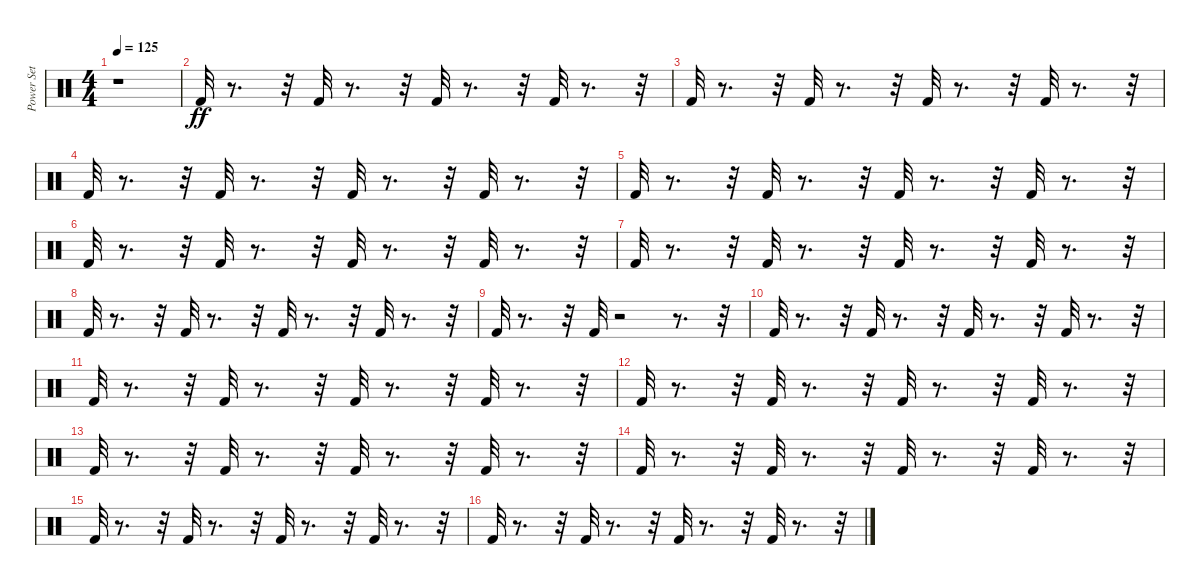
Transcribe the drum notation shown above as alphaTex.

\track ("Power Set" "Power Set") {instrument percussion}
\staff {score}
\articulation defaults
\ts (4 4)
\tempo 125
\clef neutral
\ks c
r.1{dy ff} |
"Kick (hit) 2".32 r.8{d} r.32 "Kick (hit) 2".32 r.8{d} r.32 "Kick (hit) 2".32 r.8{d} r.32 "Kick (hit) 2".32 r.8{d} r.32 |
"Kick (hit) 2".32 r.8{d} r.32 "Kick (hit) 2".32 r.8{d} r.32 "Kick (hit) 2".32 r.8{d} r.32 "Kick (hit) 2".32 r.8{d} r.32 |
"Kick (hit) 2".32 r.8{d} r.32 "Kick (hit) 2".32 r.8{d} r.32 "Kick (hit) 2".32 r.8{d} r.32 "Kick (hit) 2".32 r.8{d} r.32 |
"Kick (hit) 2".32 r.8{d} r.32 "Kick (hit) 2".32 r.8{d} r.32 "Kick (hit) 2".32 r.8{d} r.32 "Kick (hit) 2".32 r.8{d} r.32 |
"Kick (hit) 2".32 r.8{d} r.32 "Kick (hit) 2".32 r.8{d} r.32 "Kick (hit) 2".32 r.8{d} r.32 "Kick (hit) 2".32 r.8{d} r.32 |
"Kick (hit) 2".32 r.8{d} r.32 "Kick (hit) 2".32 r.8{d} r.32 "Kick (hit) 2".32 r.8{d} r.32 "Kick (hit) 2".32 r.8{d} r.32 |
"Kick (hit) 2".32 r.8{d} r.32 "Kick (hit) 2".32 r.8{d} r.32 "Kick (hit) 2".32 r.8{d} r.32 "Kick (hit) 2".32 r.8{d} r.32 |
"Kick (hit) 2".32 r.8{d} r.32 "Kick (hit) 2".32 r.2 r.8{d} r.32 |
"Kick (hit) 2".32 r.8{d} r.32 "Kick (hit) 2".32 r.8{d} r.32 "Kick (hit) 2".32 r.8{d} r.32 "Kick (hit) 2".32 r.8{d} r.32 |
"Kick (hit) 2".32 r.8{d} r.32 "Kick (hit) 2".32 r.8{d} r.32 "Kick (hit) 2".32 r.8{d} r.32 "Kick (hit) 2".32 r.8{d} r.32 |
"Kick (hit) 2".32 r.8{d} r.32 "Kick (hit) 2".32 r.8{d} r.32 "Kick (hit) 2".32 r.8{d} r.32 "Kick (hit) 2".32 r.8{d} r.32 |
"Kick (hit) 2".32 r.8{d} r.32 "Kick (hit) 2".32 r.8{d} r.32 "Kick (hit) 2".32 r.8{d} r.32 "Kick (hit) 2".32 r.8{d} r.32 |
"Kick (hit) 2".32 r.8{d} r.32 "Kick (hit) 2".32 r.8{d} r.32 "Kick (hit) 2".32 r.8{d} r.32 "Kick (hit) 2".32 r.8{d} r.32 |
"Kick (hit) 2".32 r.8{d} r.32 "Kick (hit) 2".32 r.8{d} r.32 "Kick (hit) 2".32 r.8{d} r.32 "Kick (hit) 2".32 r.8{d} r.32 |
"Kick (hit) 2".32 r.8{d} r.32 "Kick (hit) 2".32 r.8{d} r.32 "Kick (hit) 2".32 r.8{d} r.32 "Kick (hit) 2".32 r.8{d} r.32
